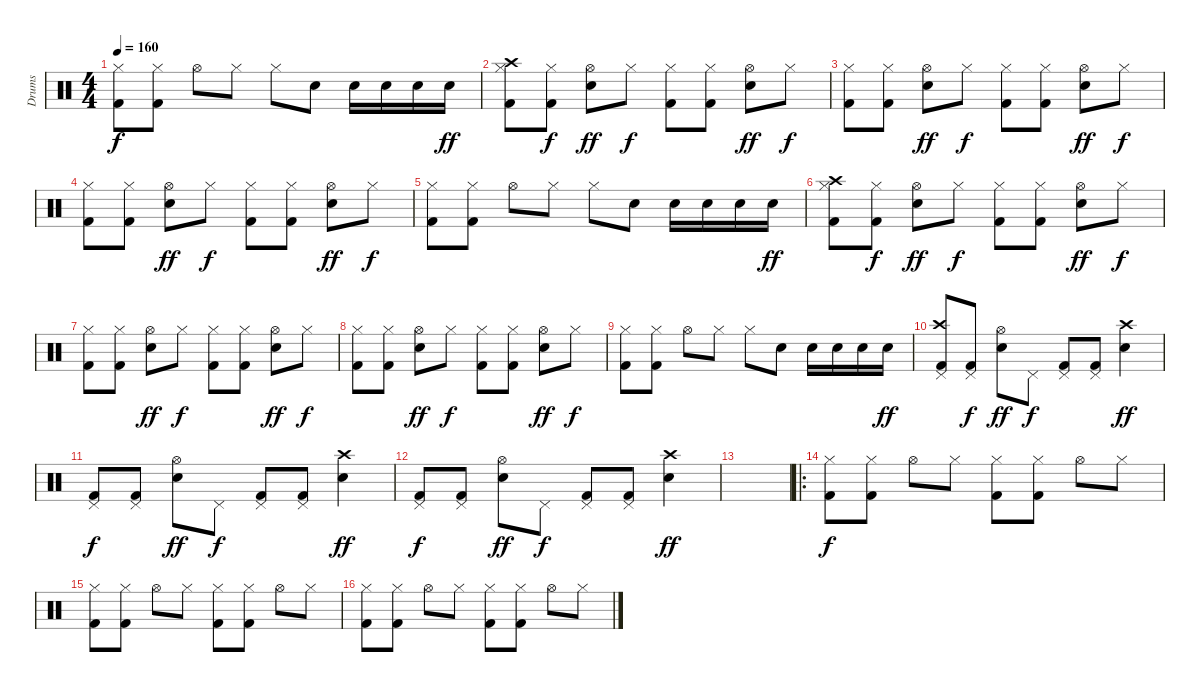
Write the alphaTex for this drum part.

\track ("Drums" "Drums") {instrument percussion}
\staff {score}
\articulation defaults
\ts (4 4)
\tempo 160
\clef neutral
\ks c
("Kick (hit) 2" "Hi-Hat (closed)").8{dy f} ("Kick (hit) 2" "Hi-Hat (closed)").8 "Hi-Hat (open)".8 "Hi-Hat (closed)".8 "Hi-Hat (closed)".8 "Electric Snare (hit)".8 "Snare (hit) 2".16 "Snare (hit) 2".16 "Snare (hit) 2".16 "Snare (hit) 2".16{dy ff} |
("Crash high (hit)" "Kick (hit) 2" "Hi-Hat (closed)").8 ("Kick (hit) 2" "Hi-Hat (closed)").8{dy f} ("Snare (hit) 2" "Hi-Hat (open)").8{dy ff} "Hi-Hat (closed)".8{dy f} ("Kick (hit) 2" "Hi-Hat (closed)").8 ("Kick (hit) 2" "Hi-Hat (closed)").8 ("Snare (hit) 2" "Hi-Hat (open)").8{dy ff} "Hi-Hat (closed)".8{dy f} |
("Kick (hit) 2" "Hi-Hat (closed)").8 ("Kick (hit) 2" "Hi-Hat (closed)").8 ("Snare (hit) 2" "Hi-Hat (open)").8{dy ff} "Hi-Hat (closed)".8{dy f} ("Kick (hit) 2" "Hi-Hat (closed)").8 ("Kick (hit) 2" "Hi-Hat (closed)").8 ("Snare (hit) 2" "Hi-Hat (open)").8{dy ff} "Hi-Hat (closed)".8{dy f} |
("Kick (hit) 2" "Hi-Hat (closed)").8 ("Kick (hit) 2" "Hi-Hat (closed)").8 ("Snare (hit) 2" "Hi-Hat (open)").8{dy ff} "Hi-Hat (closed)".8{dy f} ("Kick (hit) 2" "Hi-Hat (closed)").8 ("Kick (hit) 2" "Hi-Hat (closed)").8 ("Snare (hit) 2" "Hi-Hat (open)").8{dy ff} "Hi-Hat (closed)".8{dy f} |
("Kick (hit) 2" "Hi-Hat (closed)").8 ("Kick (hit) 2" "Hi-Hat (closed)").8 "Hi-Hat (open)".8 "Hi-Hat (closed)".8 "Hi-Hat (closed)".8 "Electric Snare (hit)".8 "Snare (hit) 2".16 "Snare (hit) 2".16 "Snare (hit) 2".16 "Snare (hit) 2".16{dy ff} |
("Crash high (hit)" "Kick (hit) 2" "Hi-Hat (closed)").8 ("Kick (hit) 2" "Hi-Hat (closed)").8{dy f} ("Snare (hit) 2" "Hi-Hat (open)").8{dy ff} "Hi-Hat (closed)".8{dy f} ("Kick (hit) 2" "Hi-Hat (closed)").8 ("Kick (hit) 2" "Hi-Hat (closed)").8 ("Snare (hit) 2" "Hi-Hat (open)").8{dy ff} "Hi-Hat (closed)".8{dy f} |
("Kick (hit) 2" "Hi-Hat (closed)").8 ("Kick (hit) 2" "Hi-Hat (closed)").8 ("Snare (hit) 2" "Hi-Hat (open)").8{dy ff} "Hi-Hat (closed)".8{dy f} ("Kick (hit) 2" "Hi-Hat (closed)").8 ("Kick (hit) 2" "Hi-Hat (closed)").8 ("Snare (hit) 2" "Hi-Hat (open)").8{dy ff} "Hi-Hat (closed)".8{dy f} |
("Kick (hit) 2" "Hi-Hat (closed)").8 ("Kick (hit) 2" "Hi-Hat (closed)").8 ("Snare (hit) 2" "Hi-Hat (open)").8{dy ff} "Hi-Hat (closed)".8{dy f} ("Kick (hit) 2" "Hi-Hat (closed)").8 ("Kick (hit) 2" "Hi-Hat (closed)").8 ("Snare (hit) 2" "Hi-Hat (open)").8{dy ff} "Hi-Hat (closed)".8{dy f} |
("Kick (hit) 2" "Hi-Hat (closed)").8 ("Kick (hit) 2" "Hi-Hat (closed)").8 "Hi-Hat (open)".8 "Hi-Hat (closed)".8 "Hi-Hat (closed)".8 "Electric Snare (hit)".8 "Snare (hit) 2".16 "Snare (hit) 2".16 "Snare (hit) 2".16 "Snare (hit) 2".16{dy ff} |
("Crash high (hit)" "Kick (hit) 2" "Pedal Hi-Hat (hit)").8 ("Kick (hit) 2" "Pedal Hi-Hat (hit)").8{dy f} ("Snare (hit) 2" "Hi-Hat (open)").8{dy ff} "Pedal Hi-Hat (hit)".8{dy f} ("Kick (hit) 2" "Pedal Hi-Hat (hit)").8 ("Kick (hit) 2" "Pedal Hi-Hat (hit)").8 ("Snare (hit) 2" "Crash high (hit)").4{dy ff} |
("Kick (hit) 2" "Pedal Hi-Hat (hit)").8{dy f} ("Kick (hit) 2" "Pedal Hi-Hat (hit)").8 ("Snare (hit) 2" "Hi-Hat (open)").8{dy ff} "Pedal Hi-Hat (hit)".8{dy f} ("Kick (hit) 2" "Pedal Hi-Hat (hit)").8 ("Kick (hit) 2" "Pedal Hi-Hat (hit)").8 ("Snare (hit) 2" "Crash high (hit)").4{dy ff} |
("Kick (hit) 2" "Pedal Hi-Hat (hit)").8{dy f} ("Kick (hit) 2" "Pedal Hi-Hat (hit)").8 ("Snare (hit) 2" "Hi-Hat (open)").8{dy ff} "Pedal Hi-Hat (hit)".8{dy f} ("Kick (hit) 2" "Pedal Hi-Hat (hit)").8 ("Kick (hit) 2" "Pedal Hi-Hat (hit)").8 ("Snare (hit) 2" "Crash high (hit)").4{dy ff} |
|
\ro
("Kick (hit) 2" "Hi-Hat (closed)").8{dy f} ("Kick (hit) 2" "Hi-Hat (closed)").8 "Hi-Hat (open)".8 "Hi-Hat (closed)".8 ("Kick (hit) 2" "Hi-Hat (closed)").8 ("Kick (hit) 2" "Hi-Hat (closed)").8 "Hi-Hat (open)".8 "Hi-Hat (closed)".8 |
("Kick (hit) 2" "Hi-Hat (closed)").8 ("Kick (hit) 2" "Hi-Hat (closed)").8 "Hi-Hat (open)".8 "Hi-Hat (closed)".8 ("Kick (hit) 2" "Hi-Hat (closed)").8 ("Kick (hit) 2" "Hi-Hat (closed)").8 "Hi-Hat (open)".8 "Hi-Hat (closed)".8 |
("Kick (hit) 2" "Hi-Hat (closed)").8 ("Kick (hit) 2" "Hi-Hat (closed)").8 "Hi-Hat (open)".8 "Hi-Hat (closed)".8 ("Kick (hit) 2" "Hi-Hat (closed)").8 ("Kick (hit) 2" "Hi-Hat (closed)").8 "Hi-Hat (open)".8 "Hi-Hat (closed)".8
